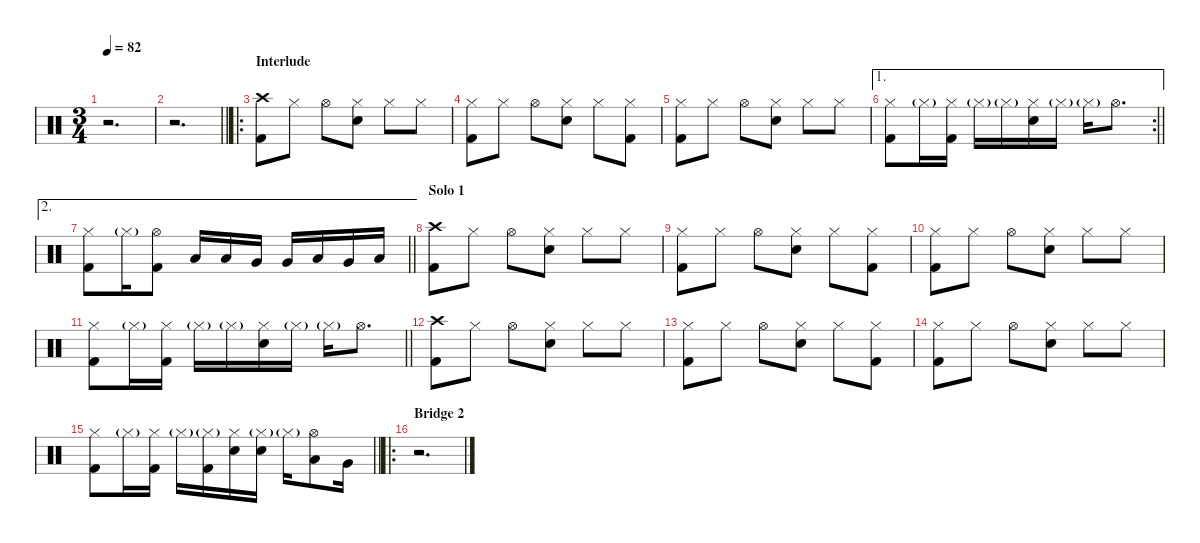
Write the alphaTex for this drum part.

\defaultSystemsLayout 4
\hideDynamics
\bracketExtendMode nobrackets
\singleTrackTrackNamePolicy hidden
\multiTrackTrackNamePolicy hidden
\firstSystemTrackNameMode fullname
\otherSystemsTrackNameOrientation horizontal
\track ("Drums" "drm.") {defaultSystemsLayout 4 instrument percussion}
\staff {score}
\articulation defaults
\ts (3 4)
\tempo 82
\clef neutral
\ks c
r.2{d dy fff beam Down} |
\barLineRight lightlight
r.2{d beam Down} |
\ro
\section ("" "Interlude")
("Crash high (hit)" "Kick (hit) 2").8{dy f beam Down} "Hi-Hat (closed)".8{beam Down} "Hi-Hat (open)".8{beam Down} ("Hi-Hat (closed)" "Snare (hit) 2").8{beam Down} "Hi-Hat (closed)".8{beam Down} "Hi-Hat (closed)".8{beam Down} |
("Hi-Hat (closed)" "Kick (hit) 2").8{beam Down} "Hi-Hat (closed)".8{beam Down} "Hi-Hat (open)".8{beam Down} ("Hi-Hat (closed)" "Snare (hit) 2").8{beam Down} "Hi-Hat (closed)".8{beam Down} ("Hi-Hat (closed)" "Kick (hit) 2").8{beam Down} |
("Hi-Hat (closed)" "Kick (hit) 2").8{beam Down} "Hi-Hat (closed)".8{beam Down} "Hi-Hat (open)".8{beam Down} ("Hi-Hat (closed)" "Snare (hit) 2").8{beam Down} "Hi-Hat (closed)".8{beam Down} "Hi-Hat (closed)".8{beam Down} |
\ae 1
\rc 2
\barLineRight lightlight
("Hi-Hat (closed)" "Kick (hit) 2").8{beam Down} "Hi-Hat (closed)"{g}.16{dy mf beam Down} ("Hi-Hat (closed)" "Kick (hit) 2").16{dy f beam Down} "Hi-Hat (closed)"{g}.16{dy mf beam Down} "Hi-Hat (closed)"{g}.16{beam Down} ("Hi-Hat (closed)" "Snare (hit) 2").16{dy f beam Down} "Hi-Hat (closed)"{g}.16{dy mf beam Down} "Hi-Hat (closed)"{g}.16{beam Down} "Hi-Hat (open)".8{d dy f beam Down} |
\ae 2
\barLineRight lightlight
("Hi-Hat (closed)" "Kick (hit) 2").8{beam Down} "Hi-Hat (closed)"{g}.16{dy mf beam Down} ("Hi-Hat (open)" "Kick (hit) 2").8{dy f beam Down} "Low Tom (hit)".16{beam Up} "Low Tom (hit)".16{beam Up} "Very Low Tom (hit)".16{beam Up} "Very Low Tom (hit)".16{beam Up} "Low Floor Tom (hit)".16{beam Up} "Very Low Tom (hit)".16{dy fff beam Up} "Low Floor Tom (hit)".16{dy f beam Up} |
\section ("" "Solo 1")
("Crash high (hit)" "Kick (hit) 2").8{beam Down} "Hi-Hat (closed)".8{beam Down} "Hi-Hat (open)".8{beam Down} ("Hi-Hat (closed)" "Snare (hit) 2").8{beam Down} "Hi-Hat (closed)".8{beam Down} "Hi-Hat (closed)".8{beam Down} |
("Hi-Hat (closed)" "Kick (hit) 2").8{beam Down} "Hi-Hat (closed)".8{beam Down} "Hi-Hat (open)".8{beam Down} ("Hi-Hat (closed)" "Snare (hit) 2").8{beam Down} "Hi-Hat (closed)".8{beam Down} ("Hi-Hat (closed)" "Kick (hit) 2").8{beam Down} |
("Hi-Hat (closed)" "Kick (hit) 2").8{beam Down} "Hi-Hat (closed)".8{beam Down} "Hi-Hat (open)".8{beam Down} ("Hi-Hat (closed)" "Snare (hit) 2").8{beam Down} "Hi-Hat (closed)".8{beam Down} "Hi-Hat (closed)".8{beam Down} |
\barLineRight lightlight
("Hi-Hat (closed)" "Kick (hit) 2").8{beam Down} "Hi-Hat (closed)"{g}.16{dy mf beam Down} ("Hi-Hat (closed)" "Kick (hit) 2").16{dy f beam Down} "Hi-Hat (closed)"{g}.16{dy mf beam Down} "Hi-Hat (closed)"{g}.16{beam Down} ("Hi-Hat (closed)" "Snare (hit) 2").16{dy f beam Down} "Hi-Hat (closed)"{g}.16{dy mf beam Down} "Hi-Hat (closed)"{g}.16{beam Down} "Hi-Hat (open)".8{d dy f beam Down} |
("Crash high (hit)" "Kick (hit) 2").8{beam Down} "Hi-Hat (closed)".8{beam Down} "Hi-Hat (open)".8{beam Down} ("Hi-Hat (closed)" "Snare (hit) 2").8{beam Down} "Hi-Hat (closed)".8{beam Down} "Hi-Hat (closed)".8{beam Down} |
("Hi-Hat (closed)" "Kick (hit) 2").8{beam Down} "Hi-Hat (closed)".8{beam Down} "Hi-Hat (open)".8{beam Down} ("Hi-Hat (closed)" "Snare (hit) 2").8{beam Down} "Hi-Hat (closed)".8{beam Down} ("Hi-Hat (closed)" "Kick (hit) 2").8{beam Down} |
("Hi-Hat (closed)" "Kick (hit) 2").8{beam Down} "Hi-Hat (closed)".8{beam Down} "Hi-Hat (open)".8{beam Down} ("Hi-Hat (closed)" "Snare (hit) 2").8{beam Down} "Hi-Hat (closed)".8{beam Down} "Hi-Hat (closed)".8{beam Down} |
\barLineRight lightlight
("Hi-Hat (closed)" "Kick (hit) 2").8{beam Down} "Hi-Hat (closed)"{g}.16{dy mf beam Down} ("Hi-Hat (closed)" "Kick (hit) 2").16{dy f beam Down} "Hi-Hat (closed)"{g}.16{dy mf beam Down} ("Hi-Hat (closed)"{g} "Kick (hit) 2").16{dy fff beam Down} ("Hi-Hat (closed)" "Snare (hit) 2").16{dy f beam Down} ("Hi-Hat (closed)"{g} "Snare (hit) 2").16{dy fff beam Down} "Hi-Hat (closed)"{g}.16{dy mf beam Down} ("Hi-Hat (open)" "Low Tom (hit)").8{dy f beam Down} "Very Low Tom (hit)".16{dy fff beam Down} |
\ro
\section ("" "Bridge 2")
r.2{d beam Down}
